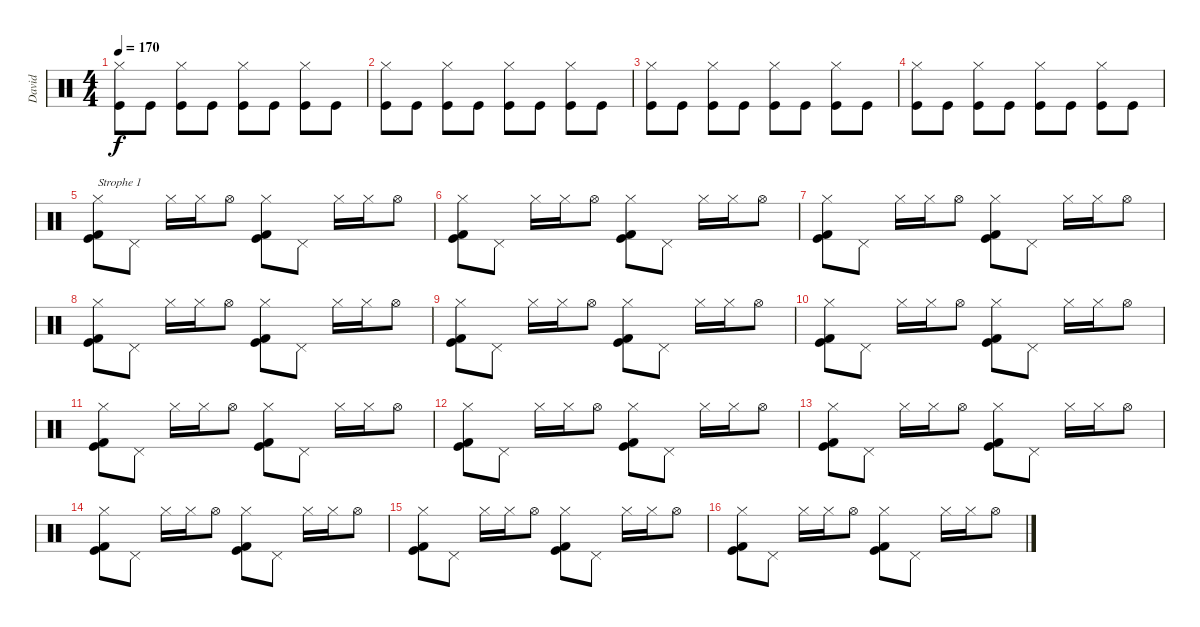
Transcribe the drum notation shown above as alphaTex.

\track ("David" "David") {instrument percussion}
\staff {score}
\articulation defaults
\ts (4 4)
\tempo 170
\clef neutral
\ks c
("Hi-Hat (closed)" "Kick (hit)").8{dy f} "Kick (hit)".8 ("Hi-Hat (closed)" "Kick (hit)").8 "Kick (hit)".8 ("Hi-Hat (closed)" "Kick (hit)").8 "Kick (hit)".8 ("Hi-Hat (closed)" "Kick (hit)").8 "Kick (hit)".8 |
("Hi-Hat (closed)" "Kick (hit)").8 "Kick (hit)".8 ("Hi-Hat (closed)" "Kick (hit)").8 "Kick (hit)".8 ("Hi-Hat (closed)" "Kick (hit)").8 "Kick (hit)".8 ("Hi-Hat (closed)" "Kick (hit)").8 "Kick (hit)".8 |
("Hi-Hat (closed)" "Kick (hit)").8 "Kick (hit)".8 ("Hi-Hat (closed)" "Kick (hit)").8 "Kick (hit)".8 ("Hi-Hat (closed)" "Kick (hit)").8 "Kick (hit)".8 ("Hi-Hat (closed)" "Kick (hit)").8 "Kick (hit)".8 |
("Hi-Hat (closed)" "Kick (hit)").8 "Kick (hit)".8 ("Hi-Hat (closed)" "Kick (hit)").8 "Kick (hit)".8 ("Hi-Hat (closed)" "Kick (hit)").8 "Kick (hit)".8 ("Hi-Hat (closed)" "Kick (hit)").8 "Kick (hit)".8 |
("Hi-Hat (closed)" "Kick (hit) 2" "Kick (hit)").8{txt "Strophe 1"} "Pedal Hi-Hat (hit)".8 "Hi-Hat (closed)".16 "Hi-Hat (closed)".16 "Hi-Hat (open)".8 ("Hi-Hat (closed)" "Kick (hit) 2" "Kick (hit)").8 "Pedal Hi-Hat (hit)".8 "Hi-Hat (closed)".16 "Hi-Hat (closed)".16 "Hi-Hat (open)".8 |
("Hi-Hat (closed)" "Kick (hit) 2" "Kick (hit)").8 "Pedal Hi-Hat (hit)".8 "Hi-Hat (closed)".16 "Hi-Hat (closed)".16 "Hi-Hat (open)".8 ("Hi-Hat (closed)" "Kick (hit) 2" "Kick (hit)").8 "Pedal Hi-Hat (hit)".8 "Hi-Hat (closed)".16 "Hi-Hat (closed)".16 "Hi-Hat (open)".8 |
("Hi-Hat (closed)" "Kick (hit) 2" "Kick (hit)").8 "Pedal Hi-Hat (hit)".8 "Hi-Hat (closed)".16 "Hi-Hat (closed)".16 "Hi-Hat (open)".8 ("Hi-Hat (closed)" "Kick (hit) 2" "Kick (hit)").8 "Pedal Hi-Hat (hit)".8 "Hi-Hat (closed)".16 "Hi-Hat (closed)".16 "Hi-Hat (open)".8 |
("Hi-Hat (closed)" "Kick (hit) 2" "Kick (hit)").8 "Pedal Hi-Hat (hit)".8 "Hi-Hat (closed)".16 "Hi-Hat (closed)".16 "Hi-Hat (open)".8 ("Hi-Hat (closed)" "Kick (hit) 2" "Kick (hit)").8 "Pedal Hi-Hat (hit)".8 "Hi-Hat (closed)".16 "Hi-Hat (closed)".16 "Hi-Hat (open)".8 |
("Hi-Hat (closed)" "Kick (hit) 2" "Kick (hit)").8 "Pedal Hi-Hat (hit)".8 "Hi-Hat (closed)".16 "Hi-Hat (closed)".16 "Hi-Hat (open)".8 ("Hi-Hat (closed)" "Kick (hit) 2" "Kick (hit)").8 "Pedal Hi-Hat (hit)".8 "Hi-Hat (closed)".16 "Hi-Hat (closed)".16 "Hi-Hat (open)".8 |
("Hi-Hat (closed)" "Kick (hit) 2" "Kick (hit)").8 "Pedal Hi-Hat (hit)".8 "Hi-Hat (closed)".16 "Hi-Hat (closed)".16 "Hi-Hat (open)".8 ("Hi-Hat (closed)" "Kick (hit) 2" "Kick (hit)").8 "Pedal Hi-Hat (hit)".8 "Hi-Hat (closed)".16 "Hi-Hat (closed)".16 "Hi-Hat (open)".8 |
("Hi-Hat (closed)" "Kick (hit) 2" "Kick (hit)").8 "Pedal Hi-Hat (hit)".8 "Hi-Hat (closed)".16 "Hi-Hat (closed)".16 "Hi-Hat (open)".8 ("Hi-Hat (closed)" "Kick (hit) 2" "Kick (hit)").8 "Pedal Hi-Hat (hit)".8 "Hi-Hat (closed)".16 "Hi-Hat (closed)".16 "Hi-Hat (open)".8 |
("Hi-Hat (closed)" "Kick (hit) 2" "Kick (hit)").8 "Pedal Hi-Hat (hit)".8 "Hi-Hat (closed)".16 "Hi-Hat (closed)".16 "Hi-Hat (open)".8 ("Hi-Hat (closed)" "Kick (hit) 2" "Kick (hit)").8 "Pedal Hi-Hat (hit)".8 "Hi-Hat (closed)".16 "Hi-Hat (closed)".16 "Hi-Hat (open)".8 |
("Hi-Hat (closed)" "Kick (hit) 2" "Kick (hit)").8 "Pedal Hi-Hat (hit)".8 "Hi-Hat (closed)".16 "Hi-Hat (closed)".16 "Hi-Hat (open)".8 ("Hi-Hat (closed)" "Kick (hit) 2" "Kick (hit)").8 "Pedal Hi-Hat (hit)".8 "Hi-Hat (closed)".16 "Hi-Hat (closed)".16 "Hi-Hat (open)".8 |
("Hi-Hat (closed)" "Kick (hit) 2" "Kick (hit)").8 "Pedal Hi-Hat (hit)".8 "Hi-Hat (closed)".16 "Hi-Hat (closed)".16 "Hi-Hat (open)".8 ("Hi-Hat (closed)" "Kick (hit) 2" "Kick (hit)").8 "Pedal Hi-Hat (hit)".8 "Hi-Hat (closed)".16 "Hi-Hat (closed)".16 "Hi-Hat (open)".8 |
("Hi-Hat (closed)" "Kick (hit) 2" "Kick (hit)").8 "Pedal Hi-Hat (hit)".8 "Hi-Hat (closed)".16 "Hi-Hat (closed)".16 "Hi-Hat (open)".8 ("Hi-Hat (closed)" "Kick (hit) 2" "Kick (hit)").8 "Pedal Hi-Hat (hit)".8 "Hi-Hat (closed)".16 "Hi-Hat (closed)".16 "Hi-Hat (open)".8 |
("Hi-Hat (closed)" "Kick (hit) 2" "Kick (hit)").8 "Pedal Hi-Hat (hit)".8 "Hi-Hat (closed)".16 "Hi-Hat (closed)".16 "Hi-Hat (open)".8 ("Hi-Hat (closed)" "Kick (hit) 2" "Kick (hit)").8 "Pedal Hi-Hat (hit)".8 "Hi-Hat (closed)".16 "Hi-Hat (closed)".16 "Hi-Hat (open)".8
